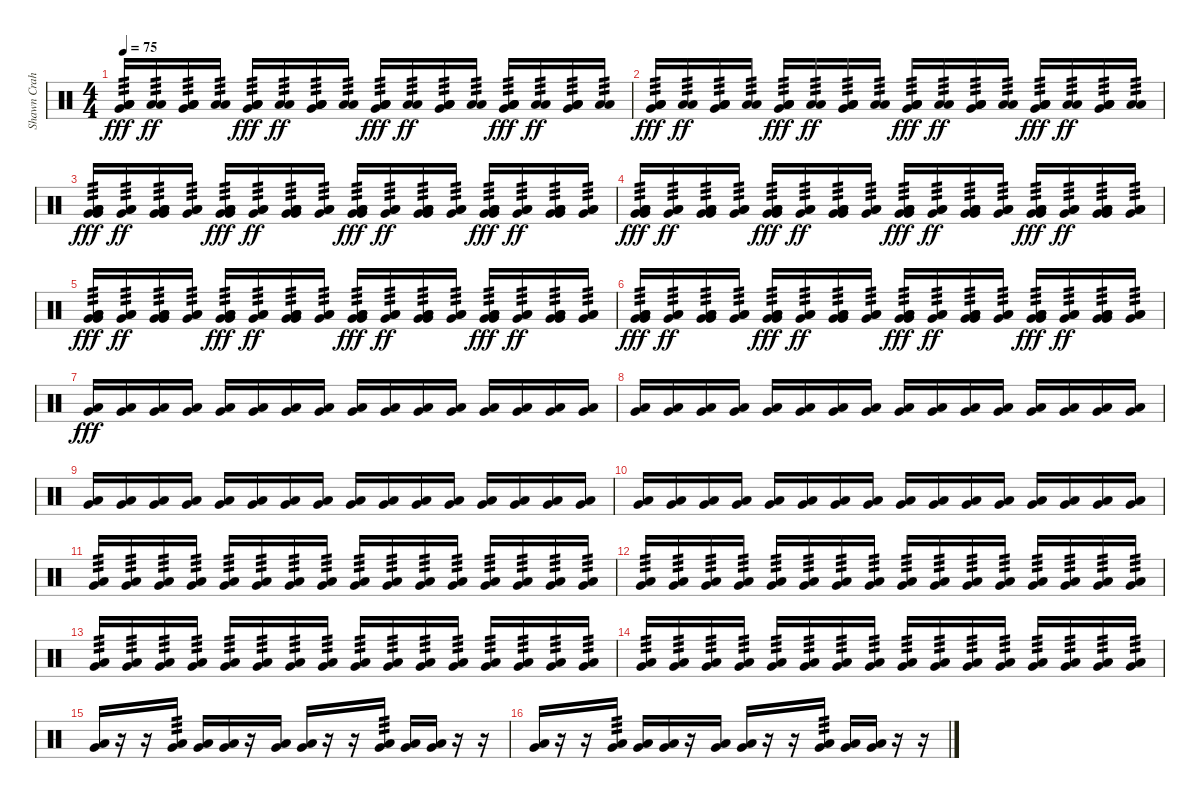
\track ("Shawn Crahan" "Shawn Crah") {instrument percussion}
\staff {score}
\articulation defaults
\ts (4 4)
\tempo 75
\clef neutral
\ks c
("Low Floor Tom (hit)" "Low Floor Tom (hit)" "Very Low Tom (hit)" "Low Floor Tom (hit)").16{tp 3 dy fff} ("Low Floor Tom (hit)" "Low Floor Tom (hit)").16{tp 3 dy ff} ("Low Floor Tom (hit)" "Low Floor Tom (hit)" "Very Low Tom (hit)" "Low Floor Tom (hit)").16{tp 3} ("Low Floor Tom (hit)" "Low Floor Tom (hit)").16{tp 3} ("Low Floor Tom (hit)" "Low Floor Tom (hit)" "Very Low Tom (hit)" "Low Floor Tom (hit)").16{tp 3 dy fff} ("Low Floor Tom (hit)" "Low Floor Tom (hit)").16{tp 3 dy ff} ("Low Floor Tom (hit)" "Low Floor Tom (hit)" "Very Low Tom (hit)" "Low Floor Tom (hit)").16{tp 3} ("Low Floor Tom (hit)" "Low Floor Tom (hit)").16{tp 3} ("Low Floor Tom (hit)" "Low Floor Tom (hit)" "Very Low Tom (hit)" "Low Floor Tom (hit)").16{tp 3 dy fff} ("Low Floor Tom (hit)" "Low Floor Tom (hit)").16{tp 3 dy ff} ("Low Floor Tom (hit)" "Low Floor Tom (hit)" "Very Low Tom (hit)" "Low Floor Tom (hit)").16{tp 3} ("Low Floor Tom (hit)" "Low Floor Tom (hit)").16{tp 3} ("Low Floor Tom (hit)" "Low Floor Tom (hit)" "Very Low Tom (hit)" "Low Floor Tom (hit)").16{tp 3 dy fff} ("Low Floor Tom (hit)" "Low Floor Tom (hit)").16{tp 3 dy ff} ("Low Floor Tom (hit)" "Low Floor Tom (hit)" "Very Low Tom (hit)" "Low Floor Tom (hit)").16{tp 3} ("Low Floor Tom (hit)" "Low Floor Tom (hit)").16{tp 3} |
("Low Floor Tom (hit)" "Low Floor Tom (hit)" "Very Low Tom (hit)" "Low Floor Tom (hit)").16{tp 3 dy fff} ("Low Floor Tom (hit)" "Low Floor Tom (hit)").16{tp 3 dy ff} ("Low Floor Tom (hit)" "Low Floor Tom (hit)" "Very Low Tom (hit)" "Low Floor Tom (hit)").16{tp 3} ("Low Floor Tom (hit)" "Low Floor Tom (hit)").16{tp 3} ("Low Floor Tom (hit)" "Low Floor Tom (hit)" "Very Low Tom (hit)" "Low Floor Tom (hit)").16{tp 3 dy fff} ("Low Floor Tom (hit)" "Low Floor Tom (hit)").16{tp 3 dy ff} ("Low Floor Tom (hit)" "Low Floor Tom (hit)" "Very Low Tom (hit)" "Low Floor Tom (hit)").16{tp 3} ("Low Floor Tom (hit)" "Low Floor Tom (hit)").16{tp 3} ("Low Floor Tom (hit)" "Low Floor Tom (hit)" "Very Low Tom (hit)" "Low Floor Tom (hit)").16{tp 3 dy fff} ("Low Floor Tom (hit)" "Low Floor Tom (hit)").16{tp 3 dy ff} ("Low Floor Tom (hit)" "Low Floor Tom (hit)" "Very Low Tom (hit)" "Low Floor Tom (hit)").16{tp 3} ("Low Floor Tom (hit)" "Low Floor Tom (hit)").16{tp 3} ("Low Floor Tom (hit)" "Low Floor Tom (hit)" "Very Low Tom (hit)" "Low Floor Tom (hit)").16{tp 3 dy fff} ("Low Floor Tom (hit)" "Low Floor Tom (hit)").16{tp 3 dy ff} ("Low Floor Tom (hit)" "Low Floor Tom (hit)" "Very Low Tom (hit)" "Low Floor Tom (hit)").16{tp 3} ("Low Floor Tom (hit)" "Low Floor Tom (hit)").16{tp 3} |
("Very Low Tom (hit)" "Low Floor Tom (hit)" "Low Floor Tom (hit)" "Very Low Tom (hit)" "Low Floor Tom (hit)").16{tp 3 dy fff} ("Very Low Tom (hit)" "Low Floor Tom (hit)" "Low Floor Tom (hit)").16{tp 3 dy ff} ("Very Low Tom (hit)" "Low Floor Tom (hit)" "Low Floor Tom (hit)" "Very Low Tom (hit)" "Low Floor Tom (hit)").16{tp 3} ("Very Low Tom (hit)" "Low Floor Tom (hit)" "Low Floor Tom (hit)").16{tp 3} ("Very Low Tom (hit)" "Low Floor Tom (hit)" "Low Floor Tom (hit)" "Very Low Tom (hit)" "Low Floor Tom (hit)").16{tp 3 dy fff} ("Very Low Tom (hit)" "Low Floor Tom (hit)" "Low Floor Tom (hit)").16{tp 3 dy ff} ("Very Low Tom (hit)" "Low Floor Tom (hit)" "Low Floor Tom (hit)" "Very Low Tom (hit)" "Low Floor Tom (hit)").16{tp 3} ("Very Low Tom (hit)" "Low Floor Tom (hit)" "Low Floor Tom (hit)").16{tp 3} ("Very Low Tom (hit)" "Low Floor Tom (hit)" "Low Floor Tom (hit)" "Very Low Tom (hit)" "Low Floor Tom (hit)").16{tp 3 dy fff} ("Very Low Tom (hit)" "Low Floor Tom (hit)" "Low Floor Tom (hit)").16{tp 3 dy ff} ("Very Low Tom (hit)" "Low Floor Tom (hit)" "Low Floor Tom (hit)" "Very Low Tom (hit)" "Low Floor Tom (hit)").16{tp 3} ("Very Low Tom (hit)" "Low Floor Tom (hit)" "Low Floor Tom (hit)").16{tp 3} ("Very Low Tom (hit)" "Low Floor Tom (hit)" "Low Floor Tom (hit)" "Very Low Tom (hit)" "Low Floor Tom (hit)").16{tp 3 dy fff} ("Very Low Tom (hit)" "Low Floor Tom (hit)" "Low Floor Tom (hit)").16{tp 3 dy ff} ("Very Low Tom (hit)" "Low Floor Tom (hit)" "Low Floor Tom (hit)" "Very Low Tom (hit)" "Low Floor Tom (hit)").16{tp 3} ("Very Low Tom (hit)" "Low Floor Tom (hit)" "Low Floor Tom (hit)").16{tp 3} |
("Very Low Tom (hit)" "Low Floor Tom (hit)" "Low Floor Tom (hit)" "Very Low Tom (hit)" "Low Floor Tom (hit)").16{tp 3 dy fff} ("Very Low Tom (hit)" "Low Floor Tom (hit)" "Low Floor Tom (hit)").16{tp 3 dy ff} ("Very Low Tom (hit)" "Low Floor Tom (hit)" "Low Floor Tom (hit)" "Very Low Tom (hit)" "Low Floor Tom (hit)").16{tp 3} ("Very Low Tom (hit)" "Low Floor Tom (hit)" "Low Floor Tom (hit)").16{tp 3} ("Very Low Tom (hit)" "Low Floor Tom (hit)" "Low Floor Tom (hit)" "Very Low Tom (hit)" "Low Floor Tom (hit)").16{tp 3 dy fff} ("Very Low Tom (hit)" "Low Floor Tom (hit)" "Low Floor Tom (hit)").16{tp 3 dy ff} ("Very Low Tom (hit)" "Low Floor Tom (hit)" "Low Floor Tom (hit)" "Very Low Tom (hit)" "Low Floor Tom (hit)").16{tp 3} ("Very Low Tom (hit)" "Low Floor Tom (hit)" "Low Floor Tom (hit)").16{tp 3} ("Very Low Tom (hit)" "Low Floor Tom (hit)" "Low Floor Tom (hit)" "Very Low Tom (hit)" "Low Floor Tom (hit)").16{tp 3 dy fff} ("Very Low Tom (hit)" "Low Floor Tom (hit)" "Low Floor Tom (hit)").16{tp 3 dy ff} ("Very Low Tom (hit)" "Low Floor Tom (hit)" "Low Floor Tom (hit)" "Very Low Tom (hit)" "Low Floor Tom (hit)").16{tp 3} ("Very Low Tom (hit)" "Low Floor Tom (hit)" "Low Floor Tom (hit)").16{tp 3} ("Very Low Tom (hit)" "Low Floor Tom (hit)" "Low Floor Tom (hit)" "Very Low Tom (hit)" "Low Floor Tom (hit)").16{tp 3 dy fff} ("Very Low Tom (hit)" "Low Floor Tom (hit)" "Low Floor Tom (hit)").16{tp 3 dy ff} ("Very Low Tom (hit)" "Low Floor Tom (hit)" "Low Floor Tom (hit)" "Very Low Tom (hit)" "Low Floor Tom (hit)").16{tp 3} ("Very Low Tom (hit)" "Low Floor Tom (hit)" "Low Floor Tom (hit)").16{tp 3} |
("Very Low Tom (hit)" "Low Floor Tom (hit)" "Low Floor Tom (hit)" "Very Low Tom (hit)" "Low Floor Tom (hit)").16{tp 3 dy fff} ("Very Low Tom (hit)" "Low Floor Tom (hit)" "Low Floor Tom (hit)").16{tp 3 dy ff} ("Very Low Tom (hit)" "Low Floor Tom (hit)" "Low Floor Tom (hit)" "Very Low Tom (hit)" "Low Floor Tom (hit)").16{tp 3} ("Very Low Tom (hit)" "Low Floor Tom (hit)" "Low Floor Tom (hit)").16{tp 3} ("Very Low Tom (hit)" "Low Floor Tom (hit)" "Low Floor Tom (hit)" "Very Low Tom (hit)" "Low Floor Tom (hit)").16{tp 3 dy fff} ("Very Low Tom (hit)" "Low Floor Tom (hit)" "Low Floor Tom (hit)").16{tp 3 dy ff} ("Very Low Tom (hit)" "Low Floor Tom (hit)" "Low Floor Tom (hit)" "Very Low Tom (hit)" "Low Floor Tom (hit)").16{tp 3} ("Very Low Tom (hit)" "Low Floor Tom (hit)" "Low Floor Tom (hit)").16{tp 3} ("Very Low Tom (hit)" "Low Floor Tom (hit)" "Low Floor Tom (hit)" "Very Low Tom (hit)" "Low Floor Tom (hit)").16{tp 3 dy fff} ("Very Low Tom (hit)" "Low Floor Tom (hit)" "Low Floor Tom (hit)").16{tp 3 dy ff} ("Very Low Tom (hit)" "Low Floor Tom (hit)" "Low Floor Tom (hit)" "Very Low Tom (hit)" "Low Floor Tom (hit)").16{tp 3} ("Very Low Tom (hit)" "Low Floor Tom (hit)" "Low Floor Tom (hit)").16{tp 3} ("Very Low Tom (hit)" "Low Floor Tom (hit)" "Low Floor Tom (hit)" "Very Low Tom (hit)" "Low Floor Tom (hit)").16{tp 3 dy fff} ("Very Low Tom (hit)" "Low Floor Tom (hit)" "Low Floor Tom (hit)").16{tp 3 dy ff} ("Very Low Tom (hit)" "Low Floor Tom (hit)" "Low Floor Tom (hit)" "Very Low Tom (hit)" "Low Floor Tom (hit)").16{tp 3} ("Very Low Tom (hit)" "Low Floor Tom (hit)" "Low Floor Tom (hit)").16{tp 3} |
("Very Low Tom (hit)" "Low Floor Tom (hit)" "Low Floor Tom (hit)" "Very Low Tom (hit)" "Low Floor Tom (hit)").16{tp 3 dy fff} ("Very Low Tom (hit)" "Low Floor Tom (hit)" "Low Floor Tom (hit)").16{tp 3 dy ff} ("Very Low Tom (hit)" "Low Floor Tom (hit)" "Low Floor Tom (hit)" "Very Low Tom (hit)" "Low Floor Tom (hit)").16{tp 3} ("Very Low Tom (hit)" "Low Floor Tom (hit)" "Low Floor Tom (hit)").16{tp 3} ("Very Low Tom (hit)" "Low Floor Tom (hit)" "Low Floor Tom (hit)" "Very Low Tom (hit)" "Low Floor Tom (hit)").16{tp 3 dy fff} ("Very Low Tom (hit)" "Low Floor Tom (hit)" "Low Floor Tom (hit)").16{tp 3 dy ff} ("Very Low Tom (hit)" "Low Floor Tom (hit)" "Low Floor Tom (hit)" "Very Low Tom (hit)" "Low Floor Tom (hit)").16{tp 3} ("Very Low Tom (hit)" "Low Floor Tom (hit)" "Low Floor Tom (hit)").16{tp 3} ("Very Low Tom (hit)" "Low Floor Tom (hit)" "Low Floor Tom (hit)" "Very Low Tom (hit)" "Low Floor Tom (hit)").16{tp 3 dy fff} ("Very Low Tom (hit)" "Low Floor Tom (hit)" "Low Floor Tom (hit)").16{tp 3 dy ff} ("Very Low Tom (hit)" "Low Floor Tom (hit)" "Low Floor Tom (hit)" "Very Low Tom (hit)" "Low Floor Tom (hit)").16{tp 3} ("Very Low Tom (hit)" "Low Floor Tom (hit)" "Low Floor Tom (hit)").16{tp 3} ("Very Low Tom (hit)" "Low Floor Tom (hit)" "Low Floor Tom (hit)" "Very Low Tom (hit)" "Low Floor Tom (hit)").16{tp 3 dy fff} ("Very Low Tom (hit)" "Low Floor Tom (hit)" "Low Floor Tom (hit)").16{tp 3 dy ff} ("Very Low Tom (hit)" "Low Floor Tom (hit)" "Low Floor Tom (hit)" "Very Low Tom (hit)" "Low Floor Tom (hit)").16{tp 3} ("Very Low Tom (hit)" "Low Floor Tom (hit)" "Low Floor Tom (hit)").16{tp 3} |
("Very Low Tom (hit)" "Low Floor Tom (hit)").16{dy fff} ("Very Low Tom (hit)" "Low Floor Tom (hit)").16 ("Very Low Tom (hit)" "Low Floor Tom (hit)").16 ("Very Low Tom (hit)" "Low Floor Tom (hit)").16 ("Very Low Tom (hit)" "Low Floor Tom (hit)").16 ("Very Low Tom (hit)" "Low Floor Tom (hit)").16 ("Very Low Tom (hit)" "Low Floor Tom (hit)").16 ("Very Low Tom (hit)" "Low Floor Tom (hit)").16 ("Very Low Tom (hit)" "Low Floor Tom (hit)").16 ("Very Low Tom (hit)" "Low Floor Tom (hit)").16 ("Very Low Tom (hit)" "Low Floor Tom (hit)").16 ("Very Low Tom (hit)" "Low Floor Tom (hit)").16 ("Very Low Tom (hit)" "Low Floor Tom (hit)").16 ("Very Low Tom (hit)" "Low Floor Tom (hit)").16 ("Very Low Tom (hit)" "Low Floor Tom (hit)").16 ("Very Low Tom (hit)" "Low Floor Tom (hit)").16 |
("Very Low Tom (hit)" "Low Floor Tom (hit)").16 ("Very Low Tom (hit)" "Low Floor Tom (hit)").16 ("Very Low Tom (hit)" "Low Floor Tom (hit)").16 ("Very Low Tom (hit)" "Low Floor Tom (hit)").16 ("Very Low Tom (hit)" "Low Floor Tom (hit)").16 ("Very Low Tom (hit)" "Low Floor Tom (hit)").16 ("Very Low Tom (hit)" "Low Floor Tom (hit)").16 ("Very Low Tom (hit)" "Low Floor Tom (hit)").16 ("Very Low Tom (hit)" "Low Floor Tom (hit)").16 ("Very Low Tom (hit)" "Low Floor Tom (hit)").16 ("Very Low Tom (hit)" "Low Floor Tom (hit)").16 ("Very Low Tom (hit)" "Low Floor Tom (hit)").16 ("Very Low Tom (hit)" "Low Floor Tom (hit)").16 ("Very Low Tom (hit)" "Low Floor Tom (hit)").16 ("Very Low Tom (hit)" "Low Floor Tom (hit)").16 ("Very Low Tom (hit)" "Low Floor Tom (hit)").16 |
("Very Low Tom (hit)" "Low Floor Tom (hit)").16 ("Very Low Tom (hit)" "Low Floor Tom (hit)").16 ("Very Low Tom (hit)" "Low Floor Tom (hit)").16 ("Very Low Tom (hit)" "Low Floor Tom (hit)").16 ("Very Low Tom (hit)" "Low Floor Tom (hit)").16 ("Very Low Tom (hit)" "Low Floor Tom (hit)").16 ("Very Low Tom (hit)" "Low Floor Tom (hit)").16 ("Very Low Tom (hit)" "Low Floor Tom (hit)").16 ("Very Low Tom (hit)" "Low Floor Tom (hit)").16 ("Very Low Tom (hit)" "Low Floor Tom (hit)").16 ("Very Low Tom (hit)" "Low Floor Tom (hit)").16 ("Very Low Tom (hit)" "Low Floor Tom (hit)").16 ("Very Low Tom (hit)" "Low Floor Tom (hit)").16 ("Very Low Tom (hit)" "Low Floor Tom (hit)").16 ("Very Low Tom (hit)" "Low Floor Tom (hit)").16 ("Very Low Tom (hit)" "Low Floor Tom (hit)").16 |
("Very Low Tom (hit)" "Low Floor Tom (hit)").16 ("Very Low Tom (hit)" "Low Floor Tom (hit)").16 ("Very Low Tom (hit)" "Low Floor Tom (hit)").16 ("Very Low Tom (hit)" "Low Floor Tom (hit)").16 ("Very Low Tom (hit)" "Low Floor Tom (hit)").16 ("Very Low Tom (hit)" "Low Floor Tom (hit)").16 ("Very Low Tom (hit)" "Low Floor Tom (hit)").16 ("Very Low Tom (hit)" "Low Floor Tom (hit)").16 ("Very Low Tom (hit)" "Low Floor Tom (hit)").16 ("Very Low Tom (hit)" "Low Floor Tom (hit)").16 ("Very Low Tom (hit)" "Low Floor Tom (hit)").16 ("Very Low Tom (hit)" "Low Floor Tom (hit)").16 ("Very Low Tom (hit)" "Low Floor Tom (hit)").16 ("Very Low Tom (hit)" "Low Floor Tom (hit)").16 ("Very Low Tom (hit)" "Low Floor Tom (hit)").16 ("Very Low Tom (hit)" "Low Floor Tom (hit)").16 |
("Very Low Tom (hit)" "Low Floor Tom (hit)").16{tp 3} ("Very Low Tom (hit)" "Low Floor Tom (hit)").16{tp 3} ("Very Low Tom (hit)" "Low Floor Tom (hit)").16{tp 3} ("Very Low Tom (hit)" "Low Floor Tom (hit)").16{tp 3} ("Very Low Tom (hit)" "Low Floor Tom (hit)").16{tp 3} ("Very Low Tom (hit)" "Low Floor Tom (hit)").16{tp 3} ("Very Low Tom (hit)" "Low Floor Tom (hit)").16{tp 3} ("Very Low Tom (hit)" "Low Floor Tom (hit)").16{tp 3} ("Very Low Tom (hit)" "Low Floor Tom (hit)").16{tp 3} ("Very Low Tom (hit)" "Low Floor Tom (hit)").16{tp 3} ("Very Low Tom (hit)" "Low Floor Tom (hit)").16{tp 3} ("Very Low Tom (hit)" "Low Floor Tom (hit)").16{tp 3} ("Very Low Tom (hit)" "Low Floor Tom (hit)").16{tp 3} ("Very Low Tom (hit)" "Low Floor Tom (hit)").16{tp 3} ("Very Low Tom (hit)" "Low Floor Tom (hit)").16{tp 3} ("Very Low Tom (hit)" "Low Floor Tom (hit)").16{tp 3} |
("Very Low Tom (hit)" "Low Floor Tom (hit)").16{tp 3} ("Very Low Tom (hit)" "Low Floor Tom (hit)").16{tp 3} ("Very Low Tom (hit)" "Low Floor Tom (hit)").16{tp 3} ("Very Low Tom (hit)" "Low Floor Tom (hit)").16{tp 3} ("Very Low Tom (hit)" "Low Floor Tom (hit)").16{tp 3} ("Very Low Tom (hit)" "Low Floor Tom (hit)").16{tp 3} ("Very Low Tom (hit)" "Low Floor Tom (hit)").16{tp 3} ("Very Low Tom (hit)" "Low Floor Tom (hit)").16{tp 3} ("Very Low Tom (hit)" "Low Floor Tom (hit)").16{tp 3} ("Very Low Tom (hit)" "Low Floor Tom (hit)").16{tp 3} ("Very Low Tom (hit)" "Low Floor Tom (hit)").16{tp 3} ("Very Low Tom (hit)" "Low Floor Tom (hit)").16{tp 3} ("Very Low Tom (hit)" "Low Floor Tom (hit)").16{tp 3} ("Very Low Tom (hit)" "Low Floor Tom (hit)").16{tp 3} ("Very Low Tom (hit)" "Low Floor Tom (hit)").16{tp 3} ("Very Low Tom (hit)" "Low Floor Tom (hit)").16{tp 3} |
("Very Low Tom (hit)" "Low Floor Tom (hit)").16{tp 3} ("Very Low Tom (hit)" "Low Floor Tom (hit)").16{tp 3} ("Very Low Tom (hit)" "Low Floor Tom (hit)").16{tp 3} ("Very Low Tom (hit)" "Low Floor Tom (hit)").16{tp 3} ("Very Low Tom (hit)" "Low Floor Tom (hit)").16{tp 3} ("Very Low Tom (hit)" "Low Floor Tom (hit)").16{tp 3} ("Very Low Tom (hit)" "Low Floor Tom (hit)").16{tp 3} ("Very Low Tom (hit)" "Low Floor Tom (hit)").16{tp 3} ("Very Low Tom (hit)" "Low Floor Tom (hit)").16{tp 3} ("Very Low Tom (hit)" "Low Floor Tom (hit)").16{tp 3} ("Very Low Tom (hit)" "Low Floor Tom (hit)").16{tp 3} ("Very Low Tom (hit)" "Low Floor Tom (hit)").16{tp 3} ("Very Low Tom (hit)" "Low Floor Tom (hit)").16{tp 3} ("Very Low Tom (hit)" "Low Floor Tom (hit)").16{tp 3} ("Very Low Tom (hit)" "Low Floor Tom (hit)").16{tp 3} ("Very Low Tom (hit)" "Low Floor Tom (hit)").16{tp 3} |
("Very Low Tom (hit)" "Low Floor Tom (hit)").16{tp 3} ("Very Low Tom (hit)" "Low Floor Tom (hit)").16{tp 3} ("Very Low Tom (hit)" "Low Floor Tom (hit)").16{tp 3} ("Very Low Tom (hit)" "Low Floor Tom (hit)").16{tp 3} ("Very Low Tom (hit)" "Low Floor Tom (hit)").16{tp 3} ("Very Low Tom (hit)" "Low Floor Tom (hit)").16{tp 3} ("Very Low Tom (hit)" "Low Floor Tom (hit)").16{tp 3} ("Very Low Tom (hit)" "Low Floor Tom (hit)").16{tp 3} ("Very Low Tom (hit)" "Low Floor Tom (hit)").16{tp 3} ("Very Low Tom (hit)" "Low Floor Tom (hit)").16{tp 3} ("Very Low Tom (hit)" "Low Floor Tom (hit)").16{tp 3} ("Very Low Tom (hit)" "Low Floor Tom (hit)").16{tp 3} ("Very Low Tom (hit)" "Low Floor Tom (hit)").16{tp 3} ("Very Low Tom (hit)" "Low Floor Tom (hit)").16{tp 3} ("Very Low Tom (hit)" "Low Floor Tom (hit)").16{tp 3} ("Very Low Tom (hit)" "Low Floor Tom (hit)").16{tp 3} |
("Very Low Tom (hit)" "Low Floor Tom (hit)").16 r.16 r.16 ("Very Low Tom (hit)" "Low Floor Tom (hit)").16{tp 3} ("Very Low Tom (hit)" "Low Floor Tom (hit)").16 ("Very Low Tom (hit)" "Low Floor Tom (hit)").16 r.16 ("Very Low Tom (hit)" "Low Floor Tom (hit)").16 ("Very Low Tom (hit)" "Low Floor Tom (hit)").16 r.16 r.16 ("Very Low Tom (hit)" "Low Floor Tom (hit)").16{tp 3} ("Very Low Tom (hit)" "Low Floor Tom (hit)").16 ("Very Low Tom (hit)" "Low Floor Tom (hit)").16 r.16 r.16 |
("Very Low Tom (hit)" "Low Floor Tom (hit)").16 r.16 r.16 ("Very Low Tom (hit)" "Low Floor Tom (hit)").16{tp 3} ("Very Low Tom (hit)" "Low Floor Tom (hit)").16 ("Very Low Tom (hit)" "Low Floor Tom (hit)").16 r.16 ("Very Low Tom (hit)" "Low Floor Tom (hit)").16 ("Very Low Tom (hit)" "Low Floor Tom (hit)").16 r.16 r.16 ("Very Low Tom (hit)" "Low Floor Tom (hit)").16{tp 3} ("Very Low Tom (hit)" "Low Floor Tom (hit)").16 ("Very Low Tom (hit)" "Low Floor Tom (hit)").16 r.16 r.16
